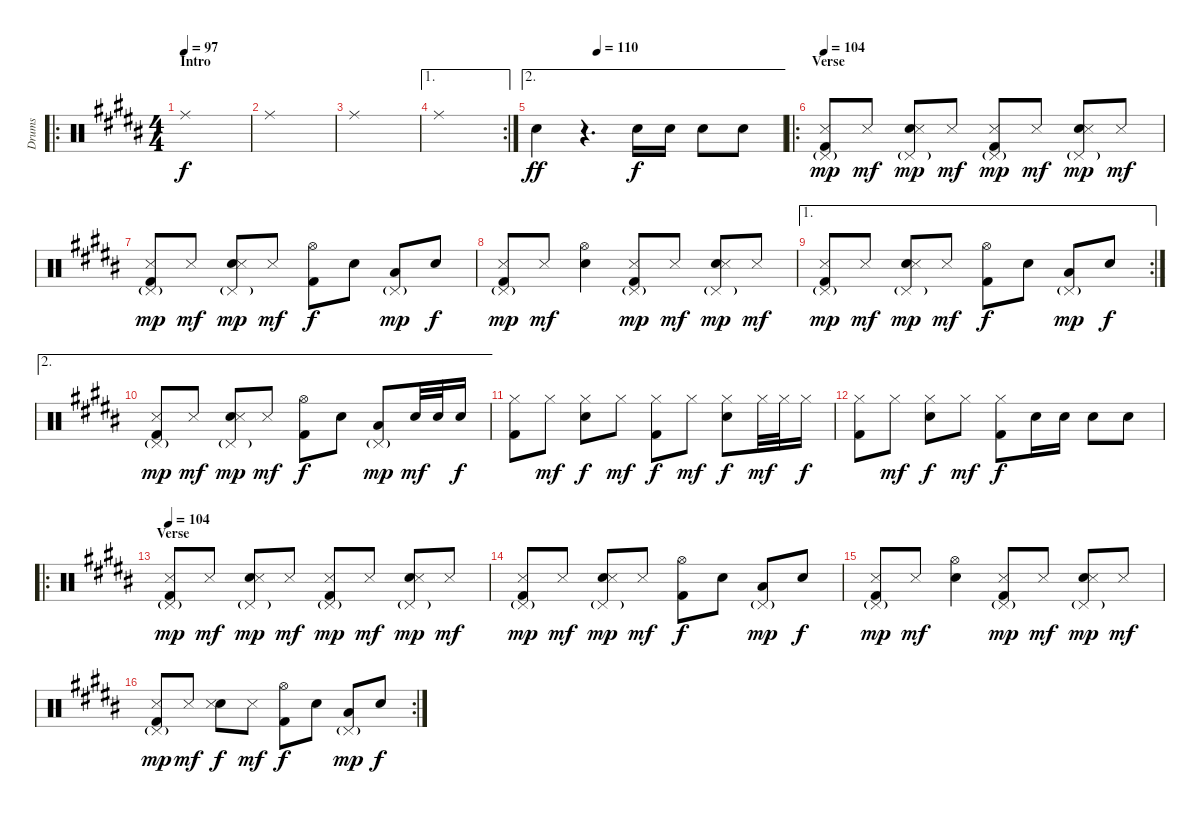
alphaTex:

\track ("Drums" "Drums") {instrument percussion}
\staff {score}
\articulation defaults
\ro
\ts (4 4)
\section ("" "Intro")
\tempo 97
\clef neutral
\ks b "Ride (middle)".1{dy f}
|
"Ride (middle)".1 |
"Ride (middle)".1 |
\ae 1
\rc 2 "Ride (middle)".1
|
\ae 2
\tempo (110 0.25)
"Snare (hit) 2".4{dy ff} r.4{d} "Snare (hit) 2".16{dy f} "Snare (hit) 2".16 "Snare (hit) 2".8 "Snare (hit) 2".8 |
\ro
\section ("" "Verse")
\tempo 104
("Kick (hit) 2" "Metronome (hit)" "Pedal Hi-Hat (hit)"{g}).8{dy mp} "Metronome (hit)".8{dy mf} ("Snare (hit) 2" "Metronome (hit)" "Pedal Hi-Hat (hit)"{g}).8{dy mp} "Metronome (hit)".8{dy mf} ("Kick (hit) 2" "Metronome (hit)" "Pedal Hi-Hat (hit)"{g}).8{dy mp} "Metronome (hit)".8{dy mf} ("Snare (hit) 2" "Metronome (hit)" "Pedal Hi-Hat (hit)"{g}).8{dy mp} "Metronome (hit)".8{dy mf} |
("Kick (hit) 2" "Metronome (hit)" "Pedal Hi-Hat (hit)"{g}).8{dy mp} "Metronome (hit)".8{dy mf} ("Snare (hit) 2" "Metronome (hit)" "Pedal Hi-Hat (hit)"{g}).8{dy mp} "Metronome (hit)".8{dy mf} ("Kick (hit) 2" "Hi-Hat (open)").8{dy f} "Snare (hit) 2".8 ("Pedal Hi-Hat (hit)"{g} "Low Tom (hit)").8{dy mp} "Snare (hit) 2".8{dy f} |
("Kick (hit) 2" "Metronome (hit)" "Pedal Hi-Hat (hit)"{g}).8{dy mp} "Metronome (hit)".8{dy mf} ("Snare (hit) 2" "Hi-Hat (open)").4 ("Kick (hit) 2" "Metronome (hit)" "Pedal Hi-Hat (hit)"{g}).8{dy mp} "Metronome (hit)".8{dy mf} ("Snare (hit) 2" "Metronome (hit)" "Pedal Hi-Hat (hit)"{g}).8{dy mp} "Metronome (hit)".8{dy mf} |
\ae 1
\rc 2
("Kick (hit) 2" "Metronome (hit)" "Pedal Hi-Hat (hit)"{g}).8{dy mp} "Metronome (hit)".8{dy mf} ("Snare (hit) 2" "Metronome (hit)" "Pedal Hi-Hat (hit)"{g}).8{dy mp} "Metronome (hit)".8{dy mf} ("Kick (hit) 2" "Hi-Hat (open)").8{dy f} "Snare (hit) 2".8 ("Pedal Hi-Hat (hit)"{g} "Low Tom (hit)").8{dy mp} "Snare (hit) 2".8{dy f} |
\ae 2
("Kick (hit) 2" "Metronome (hit)" "Pedal Hi-Hat (hit)"{g}).8{dy mp} "Metronome (hit)".8{dy mf} ("Snare (hit) 2" "Metronome (hit)" "Pedal Hi-Hat (hit)"{g}).8{dy mp} "Metronome (hit)".8{dy mf} ("Kick (hit) 2" "Hi-Hat (open)").8{dy f} "Snare (hit) 2".8 ("Pedal Hi-Hat (hit)"{g} "Low Tom (hit)").8{dy mp} "Snare (hit) 2".32{dy mf} "Snare (hit) 2".32 "Snare (hit) 2".16{dy f} |
("Kick (hit) 2" "Hi-Hat (closed)").8 "Hi-Hat (closed)".8{dy mf} ("Snare (hit) 2" "Hi-Hat (closed)").8{dy f} "Hi-Hat (closed)".8{dy mf} ("Kick (hit) 2" "Hi-Hat (closed)").8{dy f} "Hi-Hat (closed)".8{dy mf} ("Snare (hit) 2" "Hi-Hat (closed)").8{dy f} "Hi-Hat (closed)".32{dy mf} "Hi-Hat (closed)".32 "Hi-Hat (closed)".16{dy f} |
("Kick (hit) 2" "Hi-Hat (closed)").8 "Hi-Hat (closed)".8{dy mf} ("Snare (hit) 2" "Hi-Hat (closed)").8{dy f} "Hi-Hat (closed)".8{dy mf} ("Kick (hit) 2" "Hi-Hat (closed)").8{dy f} "Snare (hit) 2".16 "Snare (hit) 2".16 "Snare (hit) 2".8 "Snare (hit) 2".8 |
\ro
\section ("" "Verse")
\tempo 104
("Kick (hit) 2" "Metronome (hit)" "Pedal Hi-Hat (hit)"{g}).8{dy mp} "Metronome (hit)".8{dy mf} ("Snare (hit) 2" "Metronome (hit)" "Pedal Hi-Hat (hit)"{g}).8{dy mp} "Metronome (hit)".8{dy mf} ("Kick (hit) 2" "Metronome (hit)" "Pedal Hi-Hat (hit)"{g}).8{dy mp} "Metronome (hit)".8{dy mf} ("Snare (hit) 2" "Metronome (hit)" "Pedal Hi-Hat (hit)"{g}).8{dy mp} "Metronome (hit)".8{dy mf} |
("Kick (hit) 2" "Metronome (hit)" "Pedal Hi-Hat (hit)"{g}).8{dy mp} "Metronome (hit)".8{dy mf} ("Snare (hit) 2" "Metronome (hit)" "Pedal Hi-Hat (hit)"{g}).8{dy mp} "Metronome (hit)".8{dy mf} ("Kick (hit) 2" "Hi-Hat (open)").8{dy f} "Snare (hit) 2".8 ("Pedal Hi-Hat (hit)"{g} "Low Tom (hit)").8{dy mp} "Snare (hit) 2".8{dy f} |
("Kick (hit) 2" "Metronome (hit)" "Pedal Hi-Hat (hit)"{g}).8{dy mp} "Metronome (hit)".8{dy mf} ("Snare (hit) 2" "Hi-Hat (open)").4 ("Kick (hit) 2" "Metronome (hit)" "Pedal Hi-Hat (hit)"{g}).8{dy mp} "Metronome (hit)".8{dy mf} ("Snare (hit) 2" "Metronome (hit)" "Pedal Hi-Hat (hit)"{g}).8{dy mp} "Metronome (hit)".8{dy mf} |
\rc 2
("Kick (hit) 2" "Metronome (hit)" "Pedal Hi-Hat (hit)"{g}).8{dy mp} "Metronome (hit)".8{dy mf} ("Snare (hit) 2" "Metronome (hit)").8{dy f} "Metronome (hit)".8{dy mf} ("Kick (hit) 2" "Hi-Hat (open)").8{dy f} "Snare (hit) 2".8 ("Pedal Hi-Hat (hit)"{g} "Low Tom (hit)").8{dy mp} "Snare (hit) 2".8{dy f}
